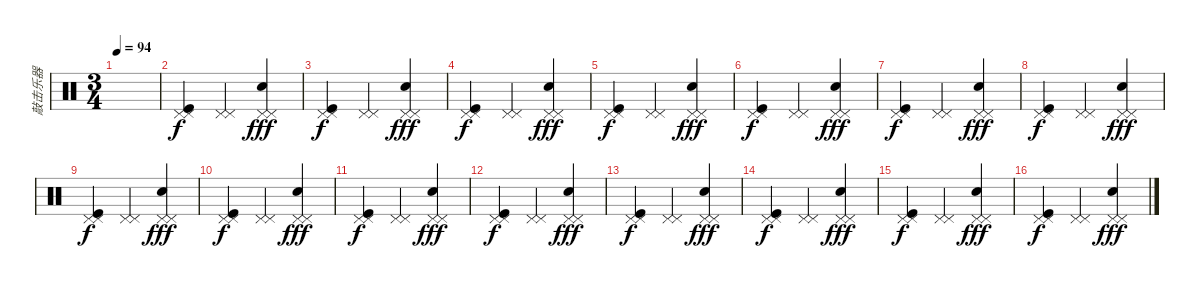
\track ("敲击乐器" "敲击乐器") {instrument percussion}
\staff {score}
\articulation defaults
\ts (3 4)
\tempo 94
\clef neutral
\ks c
|
("Pedal Hi-Hat (hit)" "Pedal Hi-Hat (hit)" "Kick (hit)").4 ("Pedal Hi-Hat (hit)" "Pedal Hi-Hat (hit)").4 ("Pedal Hi-Hat (hit)" "Pedal Hi-Hat (hit)" "Snare (hit) 2").4{dy fff} |
("Pedal Hi-Hat (hit)" "Pedal Hi-Hat (hit)" "Kick (hit)").4{dy f} ("Pedal Hi-Hat (hit)" "Pedal Hi-Hat (hit)").4 ("Pedal Hi-Hat (hit)" "Pedal Hi-Hat (hit)" "Snare (hit) 2").4{dy fff} |
("Pedal Hi-Hat (hit)" "Pedal Hi-Hat (hit)" "Kick (hit)").4{dy f} ("Pedal Hi-Hat (hit)" "Pedal Hi-Hat (hit)").4 ("Pedal Hi-Hat (hit)" "Pedal Hi-Hat (hit)" "Snare (hit) 2").4{dy fff} |
("Pedal Hi-Hat (hit)" "Pedal Hi-Hat (hit)" "Kick (hit)").4{dy f} ("Pedal Hi-Hat (hit)" "Pedal Hi-Hat (hit)").4 ("Pedal Hi-Hat (hit)" "Pedal Hi-Hat (hit)" "Snare (hit) 2").4{dy fff} |
("Pedal Hi-Hat (hit)" "Pedal Hi-Hat (hit)" "Kick (hit)").4{dy f} ("Pedal Hi-Hat (hit)" "Pedal Hi-Hat (hit)").4 ("Pedal Hi-Hat (hit)" "Pedal Hi-Hat (hit)" "Snare (hit) 2").4{dy fff} |
("Pedal Hi-Hat (hit)" "Pedal Hi-Hat (hit)" "Kick (hit)").4{dy f} ("Pedal Hi-Hat (hit)" "Pedal Hi-Hat (hit)").4 ("Pedal Hi-Hat (hit)" "Pedal Hi-Hat (hit)" "Snare (hit) 2").4{dy fff} |
("Pedal Hi-Hat (hit)" "Pedal Hi-Hat (hit)" "Kick (hit)").4{dy f} ("Pedal Hi-Hat (hit)" "Pedal Hi-Hat (hit)").4 ("Pedal Hi-Hat (hit)" "Pedal Hi-Hat (hit)" "Snare (hit) 2").4{dy fff} |
("Pedal Hi-Hat (hit)" "Pedal Hi-Hat (hit)" "Kick (hit)").4{dy f} ("Pedal Hi-Hat (hit)" "Pedal Hi-Hat (hit)").4 ("Pedal Hi-Hat (hit)" "Pedal Hi-Hat (hit)" "Snare (hit) 2").4{dy fff} |
("Pedal Hi-Hat (hit)" "Pedal Hi-Hat (hit)" "Kick (hit)").4{dy f} ("Pedal Hi-Hat (hit)" "Pedal Hi-Hat (hit)").4 ("Pedal Hi-Hat (hit)" "Pedal Hi-Hat (hit)" "Snare (hit) 2").4{dy fff} |
("Pedal Hi-Hat (hit)" "Pedal Hi-Hat (hit)" "Kick (hit)").4{dy f} ("Pedal Hi-Hat (hit)" "Pedal Hi-Hat (hit)").4 ("Pedal Hi-Hat (hit)" "Pedal Hi-Hat (hit)" "Snare (hit) 2").4{dy fff} |
("Pedal Hi-Hat (hit)" "Pedal Hi-Hat (hit)" "Kick (hit)").4{dy f} ("Pedal Hi-Hat (hit)" "Pedal Hi-Hat (hit)").4 ("Pedal Hi-Hat (hit)" "Pedal Hi-Hat (hit)" "Snare (hit) 2").4{dy fff} |
("Pedal Hi-Hat (hit)" "Pedal Hi-Hat (hit)" "Kick (hit)").4{dy f} ("Pedal Hi-Hat (hit)" "Pedal Hi-Hat (hit)").4 ("Pedal Hi-Hat (hit)" "Pedal Hi-Hat (hit)" "Snare (hit) 2").4{dy fff} |
("Pedal Hi-Hat (hit)" "Pedal Hi-Hat (hit)" "Kick (hit)").4{dy f} ("Pedal Hi-Hat (hit)" "Pedal Hi-Hat (hit)").4 ("Pedal Hi-Hat (hit)" "Pedal Hi-Hat (hit)" "Snare (hit) 2").4{dy fff} |
("Pedal Hi-Hat (hit)" "Pedal Hi-Hat (hit)" "Kick (hit)").4{dy f} ("Pedal Hi-Hat (hit)" "Pedal Hi-Hat (hit)").4 ("Pedal Hi-Hat (hit)" "Pedal Hi-Hat (hit)" "Snare (hit) 2").4{dy fff} |
("Pedal Hi-Hat (hit)" "Pedal Hi-Hat (hit)" "Kick (hit)").4{dy f} ("Pedal Hi-Hat (hit)" "Pedal Hi-Hat (hit)").4 ("Pedal Hi-Hat (hit)" "Pedal Hi-Hat (hit)" "Snare (hit) 2").4{dy fff}
